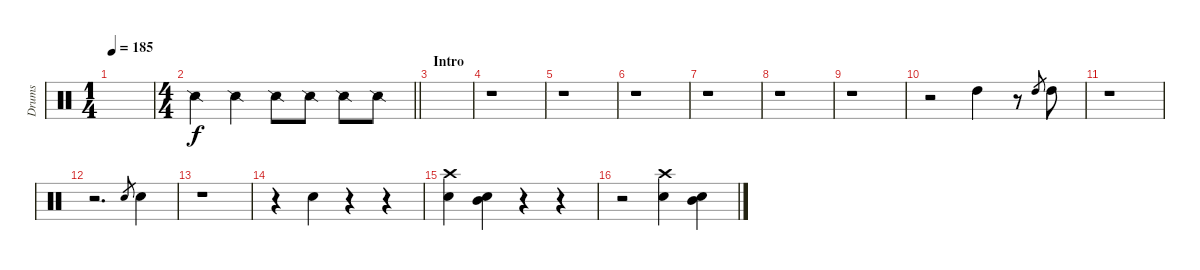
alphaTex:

\track ("Drums" "Drums") {instrument percussion}
\staff {score}
\articulation defaults
\ts (1 4)
\tempo 185
\clef neutral
\ks c
|
\ts (4 4)
\barLineRight lightlight "Snare (side stick) 2".4 "Snare (side stick) 2".4 "Snare (side stick) 2".8 "Snare (side stick) 2".8 "Snare (side stick) 2".8 "Snare (side stick) 2".8
|
\section ("" "Intro")
|
r.1 |
r.1 |
r.1 |
r.1 |
r.1 |
r.1 |
r.2 "High Tom (hit)".4 r.8 "High Tom (hit)".8{gr} "High Tom (hit)".8 |
r.1 |
r.2{d} "Electric Snare (hit)".8{gr} "Electric Snare (hit)".4 |
r.1 |
r.4 "Electric Snare (hit)".4 r.4 r.4 |
("Crash high (hit)" "Electric Snare (hit)").4 ("Electric Snare (hit)" "Mid Tom (hit)").4 r.4 r.4 |
r.2 ("Crash high (hit)" "Electric Snare (hit)").4 ("Electric Snare (hit)" "Mid Tom (hit)").4
